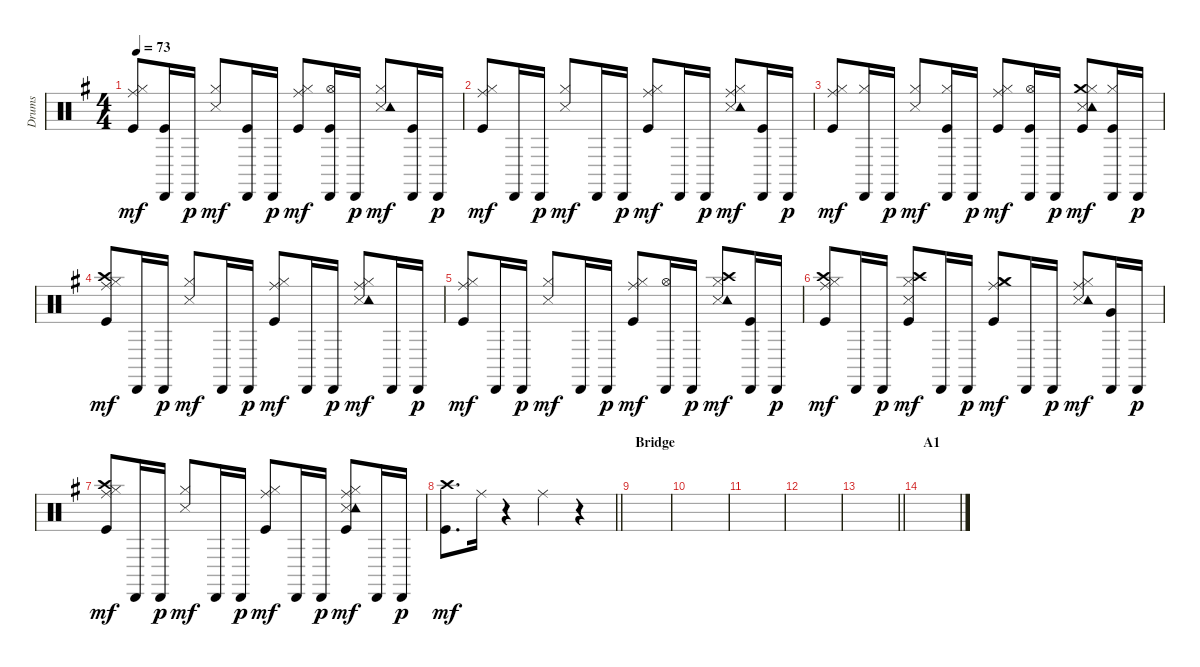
\track ("Drums" "Drums") {instrument percussion}
\staff {score}
\articulation defaults
\ts (4 4)
\tempo 73
\clef neutral
\ks g
("Hi-Hat (closed)" "Kick (hit)" "Ride (middle)").8{dy mf} ("Cabasa (hit)" "Kick (hit)").16 "Cabasa (hit)".16{dy p} ("Hi-Hat (closed)" "Snare (side stick) 3").8{dy mf} ("Cabasa (hit)" "Kick (hit)").16 "Cabasa (hit)".16{dy p} ("Hi-Hat (closed)" "Kick (hit)" "Ride (middle)").8{dy mf} ("Cabasa (hit)" "Hi-Hat (open)" "Kick (hit)").16 "Cabasa (hit)".16{dy p} ("Hi-Hat (closed)" "Snare (side stick) 3" "Tambourine (hit)").8{dy mf} ("Cabasa (hit)" "Kick (hit)").16 "Cabasa (hit)".16{dy p} |
("Hi-Hat (closed)" "Kick (hit)" "Ride (middle)").8{dy mf} "Cabasa (hit)".16 "Cabasa (hit)".16{dy p} ("Hi-Hat (closed)" "Snare (side stick) 3").8{dy mf} "Cabasa (hit)".16 "Cabasa (hit)".16{dy p} ("Hi-Hat (closed)" "Kick (hit)" "Ride (middle)").8{dy mf} "Cabasa (hit)".16 "Cabasa (hit)".16{dy p} ("Hi-Hat (closed)" "Snare (side stick) 3" "Tambourine (hit)" "Ride (middle)").8{dy mf} ("Cabasa (hit)" "Kick (hit)").16 "Cabasa (hit)".16{dy p} |
("Hi-Hat (closed)" "Kick (hit)" "Ride (middle)").8{dy mf} ("Cabasa (hit)" "Hi-Hat (closed)").16 "Cabasa (hit)".16{dy p} ("Hi-Hat (closed)" "Snare (side stick) 3").8{dy mf} ("Cabasa (hit)" "Hi-Hat (closed)" "Kick (hit)").16 "Cabasa (hit)".16{dy p} ("Hi-Hat (closed)" "Kick (hit)" "Ride (middle)").8{dy mf} ("Cabasa (hit)" "Hi-Hat (open)" "Kick (hit)").16 "Cabasa (hit)".16{dy p} ("Crash medium (hit)" "Hi-Hat (closed)" "Snare (side stick) 3" "Kick (hit)" "Tambourine (hit)").8{dy mf} ("Cabasa (hit)" "Hi-Hat (closed)" "Kick (hit)").16 "Cabasa (hit)".16{dy p} |
("Crash high (hit)" "Hi-Hat (closed)" "Kick (hit)" "Ride (middle)").8{dy mf} "Cabasa (hit)".16 "Cabasa (hit)".16{dy p} ("Hi-Hat (closed)" "Snare (side stick) 3").8{dy mf} "Cabasa (hit)".16 "Cabasa (hit)".16{dy p} ("Hi-Hat (closed)" "Kick (hit)" "Ride (middle)").8{dy mf} "Cabasa (hit)".16 "Cabasa (hit)".16{dy p} ("Hi-Hat (closed)" "Snare (side stick) 3" "Ride (middle)" "Tambourine (hit)").8{dy mf} "Cabasa (hit)".16 "Cabasa (hit)".16{dy p} |
("Hi-Hat (closed)" "Kick (hit)" "Ride (middle)").8{dy mf} "Cabasa (hit)".16 "Cabasa (hit)".16{dy p} ("Hi-Hat (closed)" "Snare (side stick) 3").8{dy mf} "Cabasa (hit)".16 "Cabasa (hit)".16{dy p} ("Hi-Hat (closed)" "Kick (hit)" "Ride (middle)").8{dy mf} ("Cabasa (hit)" "Hi-Hat (open)").16 "Cabasa (hit)".16{dy p} ("Crash high (hit)" "Hi-Hat (closed)" "Snare (side stick) 3" "Tambourine (hit)").8{dy mf} ("Cabasa (hit)" "Kick (hit)").16 "Cabasa (hit)".16{dy p} |
("Crash high (hit)" "Hi-Hat (closed)" "Kick (hit)" "Ride (middle)").8{dy mf} "Cabasa (hit)".16 "Cabasa (hit)".16{dy p} ("Crash high (hit)" "Hi-Hat (closed)" "Snare (side stick) 3" "Kick (hit)").8{dy mf} "Cabasa (hit)".16 "Cabasa (hit)".16{dy p} ("Crash medium (hit)" "Hi-Hat (closed)" "Kick (hit)" "Ride (middle)").8{dy mf} "Cabasa (hit)".16 "Cabasa (hit)".16{dy p} ("Hi-Hat (closed)" "Snare (side stick) 3" "Ride (middle)" "Tambourine (hit)").8{dy mf} ("Cabasa (hit)" "Very Low Tom (hit)").16 "Cabasa (hit)".16{dy p} |
("Crash high (hit)" "Hi-Hat (closed)" "Kick (hit)" "Ride (middle)").8{dy mf} "Cabasa (hit)".16 "Cabasa (hit)".16{dy p} ("Hi-Hat (closed)" "Snare (side stick) 3").8{dy mf} "Cabasa (hit)".16 "Cabasa (hit)".16{dy p} ("Hi-Hat (closed)" "Kick (hit)" "Ride (middle)").8{dy mf} "Cabasa (hit)".16 "Cabasa (hit)".16{dy p} ("Hi-Hat (closed)" "Kick (hit)" "Snare (side stick) 3" "Ride (middle)" "Tambourine (hit)").8{dy mf} "Cabasa (hit)".16 "Cabasa (hit)".16{dy p} |
\barLineRight lightlight
("Crash high (hit)" "Kick (hit)").8{d dy mf} "Ride (middle)".16 r.4 "Ride (middle)".4 r.4 |
\section ("" "Bridge")
|
|
|
|
\barLineRight lightlight
|
\section ("" "A1")
